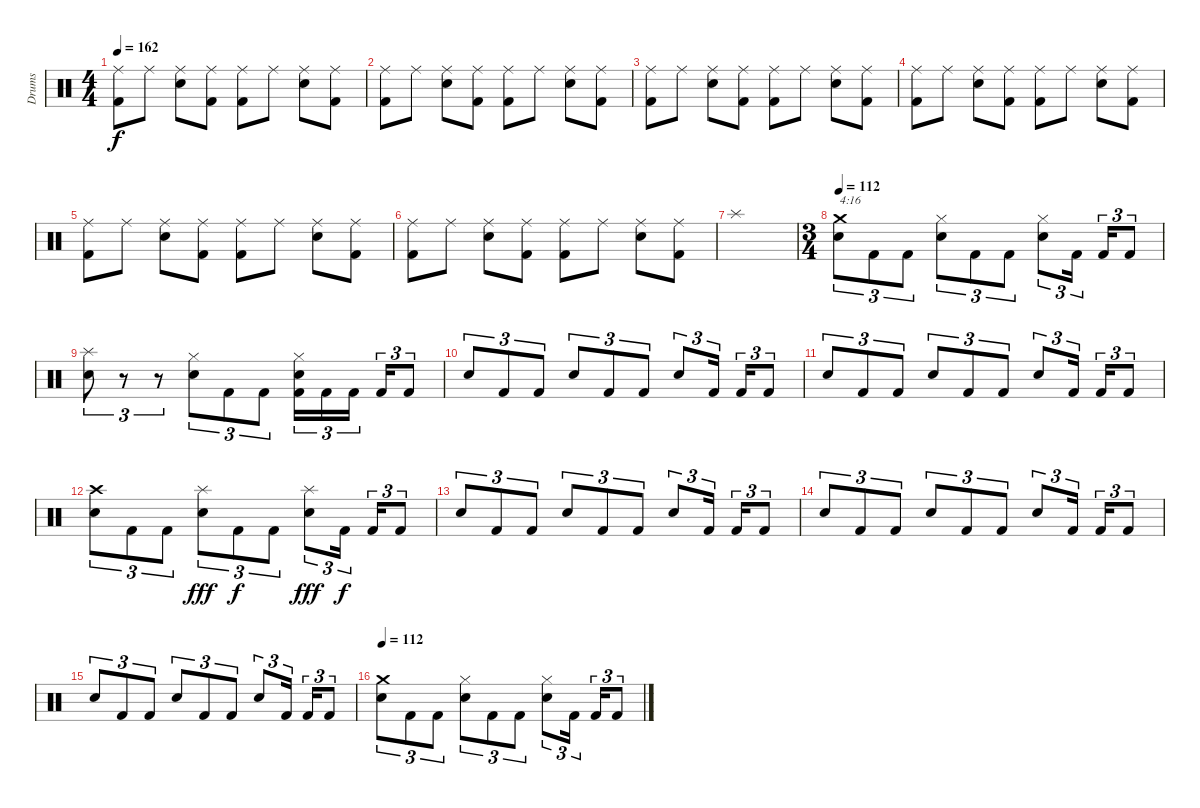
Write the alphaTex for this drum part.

\track ("Drums" "Drums") {instrument percussion}
\staff {score}
\articulation defaults
\ts (4 4)
\tempo 162
\clef neutral
\ks c
("Ride (middle)" "Kick (hit) 2").8{dy f} "Ride (middle)".8 ("Ride (middle)" "Electric Snare (hit)").8 ("Ride (middle)" "Kick (hit) 2").8 ("Ride (middle)" "Kick (hit) 2").8 "Ride (middle)".8 ("Ride (middle)" "Electric Snare (hit)").8 ("Ride (middle)" "Kick (hit) 2").8 |
("Ride (middle)" "Kick (hit) 2").8 "Ride (middle)".8 ("Ride (middle)" "Electric Snare (hit)").8 ("Ride (middle)" "Kick (hit) 2").8 ("Ride (middle)" "Kick (hit) 2").8 "Ride (middle)".8 ("Ride (middle)" "Electric Snare (hit)").8 ("Ride (middle)" "Kick (hit) 2").8 |
("Ride (middle)" "Kick (hit) 2").8 "Ride (middle)".8 ("Ride (middle)" "Electric Snare (hit)").8 ("Ride (middle)" "Kick (hit) 2").8 ("Ride (middle)" "Kick (hit) 2").8 "Ride (middle)".8 ("Ride (middle)" "Electric Snare (hit)").8 ("Ride (middle)" "Kick (hit) 2").8 |
("Ride (middle)" "Kick (hit) 2").8 "Ride (middle)".8 ("Ride (middle)" "Electric Snare (hit)").8 ("Ride (middle)" "Kick (hit) 2").8 ("Ride (middle)" "Kick (hit) 2").8 "Ride (middle)".8 ("Ride (middle)" "Electric Snare (hit)").8 ("Ride (middle)" "Kick (hit) 2").8 |
("Ride (middle)" "Kick (hit) 2").8 "Ride (middle)".8 ("Ride (middle)" "Electric Snare (hit)").8 ("Ride (middle)" "Kick (hit) 2").8 ("Ride (middle)" "Kick (hit) 2").8 "Ride (middle)".8 ("Ride (middle)" "Electric Snare (hit)").8 ("Ride (middle)" "Kick (hit) 2").8 |
("Ride (middle)" "Kick (hit) 2").8 "Ride (middle)".8 ("Ride (middle)" "Electric Snare (hit)").8 ("Ride (middle)" "Kick (hit) 2").8 ("Ride (middle)" "Kick (hit) 2").8 "Ride (middle)".8 ("Ride (middle)" "Electric Snare (hit)").8 ("Ride (middle)" "Kick (hit) 2").8 |
"Splash (hit)".1 |
\ts (3 4)
\tempo 112
("Crash medium (hit)" "Electric Snare (hit)").8{tu (3 2) txt "4:16"} "Kick (hit) 2".8{tu (3 2)} "Kick (hit) 2".8{tu (3 2)} ("Hi-Hat (closed)" "Electric Snare (hit)").8{tu (3 2)} "Kick (hit) 2".8{tu (3 2)} "Kick (hit) 2".8{tu (3 2)} ("Hi-Hat (closed)" "Electric Snare (hit)").8{tu (3 2)} "Kick (hit) 2".16{tu (3 2)} "Kick (hit) 2".16{tu (3 2)} "Kick (hit) 2".8{tu (3 2)} |
("Splash (hit)" "Electric Snare (hit)").8{tu (3 2)} r.8{tu (3 2)} r.8{tu (3 2)} ("Hi-Hat (closed)" "Electric Snare (hit)").8{tu (3 2)} "Kick (hit) 2".8{tu (3 2)} "Kick (hit) 2".8{tu (3 2)} ("Hi-Hat (closed)" "Electric Snare (hit)" "Kick (hit) 2").16{tu (3 2)} "Kick (hit) 2".16{tu (3 2)} "Kick (hit) 2".16{tu (3 2)} "Kick (hit) 2".16{tu (3 2)} "Kick (hit) 2".8{tu (3 2)} |
"Electric Snare (hit)".8{tu (3 2)} "Kick (hit) 2".8{tu (3 2)} "Kick (hit) 2".8{tu (3 2)} "Electric Snare (hit)".8{tu (3 2)} "Kick (hit) 2".8{tu (3 2)} "Kick (hit) 2".8{tu (3 2)} "Electric Snare (hit)".8{tu (3 2)} "Kick (hit) 2".16{tu (3 2)} "Kick (hit) 2".16{tu (3 2)} "Kick (hit) 2".8{tu (3 2)} |
"Electric Snare (hit)".8{tu (3 2)} "Kick (hit) 2".8{tu (3 2)} "Kick (hit) 2".8{tu (3 2)} "Electric Snare (hit)".8{tu (3 2)} "Kick (hit) 2".8{tu (3 2)} "Kick (hit) 2".8{tu (3 2)} "Electric Snare (hit)".8{tu (3 2)} "Kick (hit) 2".16{tu (3 2)} "Kick (hit) 2".16{tu (3 2)} "Kick (hit) 2".8{tu (3 2)} |
("Crash high (hit)" "Electric Snare (hit)").8{tu (3 2)} "Kick (hit) 2".8{tu (3 2)} "Kick (hit) 2".8{tu (3 2)} ("Splash (hit)" "Electric Snare (hit)").8{tu (3 2) dy fff} "Kick (hit) 2".8{tu (3 2) dy f} "Kick (hit) 2".8{tu (3 2)} ("Splash (hit)" "Electric Snare (hit)").8{tu (3 2) dy fff} "Kick (hit) 2".16{tu (3 2) dy f} "Kick (hit) 2".16{tu (3 2)} "Kick (hit) 2".8{tu (3 2)} |
"Electric Snare (hit)".8{tu (3 2)} "Kick (hit) 2".8{tu (3 2)} "Kick (hit) 2".8{tu (3 2)} "Electric Snare (hit)".8{tu (3 2)} "Kick (hit) 2".8{tu (3 2)} "Kick (hit) 2".8{tu (3 2)} "Electric Snare (hit)".8{tu (3 2)} "Kick (hit) 2".16{tu (3 2)} "Kick (hit) 2".16{tu (3 2)} "Kick (hit) 2".8{tu (3 2)} |
"Electric Snare (hit)".8{tu (3 2)} "Kick (hit) 2".8{tu (3 2)} "Kick (hit) 2".8{tu (3 2)} "Electric Snare (hit)".8{tu (3 2)} "Kick (hit) 2".8{tu (3 2)} "Kick (hit) 2".8{tu (3 2)} "Electric Snare (hit)".8{tu (3 2)} "Kick (hit) 2".16{tu (3 2)} "Kick (hit) 2".16{tu (3 2)} "Kick (hit) 2".8{tu (3 2)} |
"Electric Snare (hit)".8{tu (3 2)} "Kick (hit) 2".8{tu (3 2)} "Kick (hit) 2".8{tu (3 2)} "Electric Snare (hit)".8{tu (3 2)} "Kick (hit) 2".8{tu (3 2)} "Kick (hit) 2".8{tu (3 2)} "Electric Snare (hit)".8{tu (3 2)} "Kick (hit) 2".16{tu (3 2)} "Kick (hit) 2".16{tu (3 2)} "Kick (hit) 2".8{tu (3 2)} |
\tempo 112
("Crash medium (hit)" "Electric Snare (hit)").8{tu (3 2)} "Kick (hit) 2".8{tu (3 2)} "Kick (hit) 2".8{tu (3 2)} ("Hi-Hat (closed)" "Electric Snare (hit)").8{tu (3 2)} "Kick (hit) 2".8{tu (3 2)} "Kick (hit) 2".8{tu (3 2)} ("Hi-Hat (closed)" "Electric Snare (hit)").8{tu (3 2)} "Kick (hit) 2".16{tu (3 2)} "Kick (hit) 2".16{tu (3 2)} "Kick (hit) 2".8{tu (3 2)}
